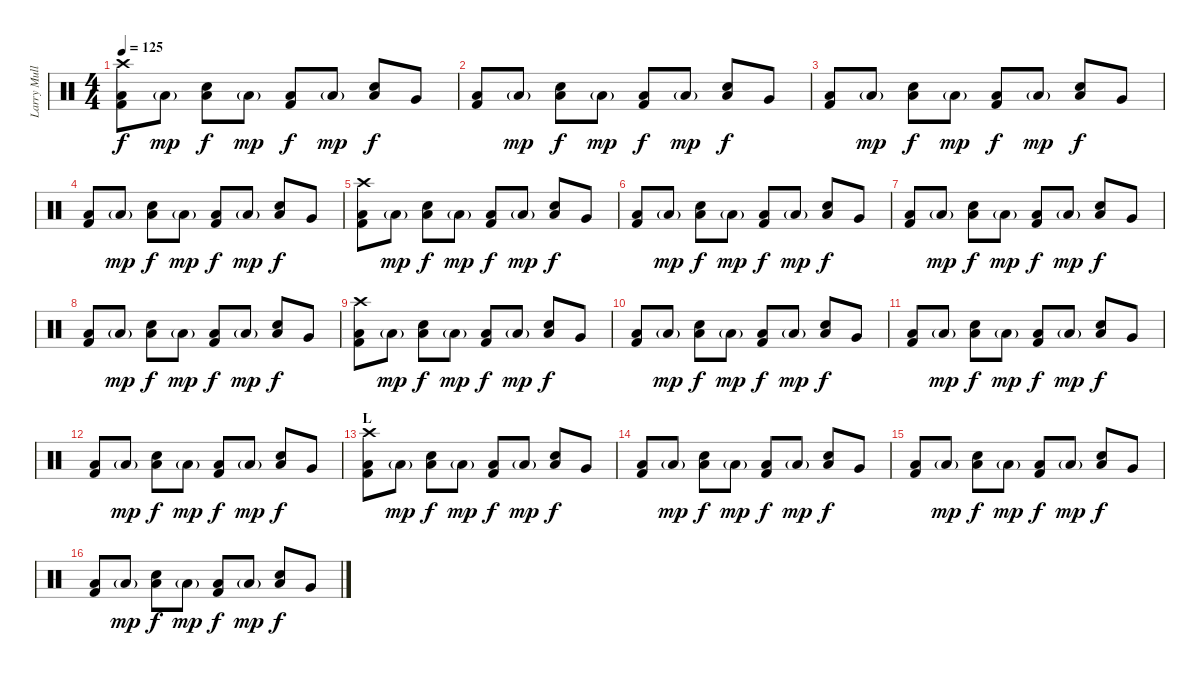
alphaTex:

\track ("Larry Mullen Jr" "Larry Mull") {instrument percussion}
\staff {score}
\articulation defaults
\ts (4 4)
\tempo 125
\clef neutral
\ks c
("Crash high (hit)" "Kick (hit) 2" "Low Floor Tom (hit)").8{dy f} "Low Floor Tom (hit)"{g}.8{dy mp} ("Snare (hit) 2" "Low Floor Tom (hit)").8{dy f} "Low Floor Tom (hit)"{g}.8{dy mp} ("Kick (hit) 2" "Low Floor Tom (hit)").8{dy f} "Low Floor Tom (hit)"{g}.8{dy mp} ("Snare (hit) 2" "Low Floor Tom (hit)").8{dy f} "Very Low Tom (hit)".8 |
("Kick (hit) 2" "Low Floor Tom (hit)").8 "Low Floor Tom (hit)"{g}.8{dy mp} ("Snare (hit) 2" "Low Floor Tom (hit)").8{dy f} "Low Floor Tom (hit)"{g}.8{dy mp} ("Kick (hit) 2" "Low Floor Tom (hit)").8{dy f} "Low Floor Tom (hit)"{g}.8{dy mp} ("Snare (hit) 2" "Low Floor Tom (hit)").8{dy f} "Very Low Tom (hit)".8 |
("Kick (hit) 2" "Low Floor Tom (hit)").8 "Low Floor Tom (hit)"{g}.8{dy mp} ("Snare (hit) 2" "Low Floor Tom (hit)").8{dy f} "Low Floor Tom (hit)"{g}.8{dy mp} ("Kick (hit) 2" "Low Floor Tom (hit)").8{dy f} "Low Floor Tom (hit)"{g}.8{dy mp} ("Snare (hit) 2" "Low Floor Tom (hit)").8{dy f} "Very Low Tom (hit)".8 |
("Kick (hit) 2" "Low Floor Tom (hit)").8 "Low Floor Tom (hit)"{g}.8{dy mp} ("Snare (hit) 2" "Low Floor Tom (hit)").8{dy f} "Low Floor Tom (hit)"{g}.8{dy mp} ("Kick (hit) 2" "Low Floor Tom (hit)").8{dy f} "Low Floor Tom (hit)"{g}.8{dy mp} ("Snare (hit) 2" "Low Floor Tom (hit)").8{dy f} "Very Low Tom (hit)".8 |
("Crash high (hit)" "Kick (hit) 2" "Low Floor Tom (hit)").8 "Low Floor Tom (hit)"{g}.8{dy mp} ("Snare (hit) 2" "Low Floor Tom (hit)").8{dy f} "Low Floor Tom (hit)"{g}.8{dy mp} ("Kick (hit) 2" "Low Floor Tom (hit)").8{dy f} "Low Floor Tom (hit)"{g}.8{dy mp} ("Snare (hit) 2" "Low Floor Tom (hit)").8{dy f} "Very Low Tom (hit)".8 |
("Kick (hit) 2" "Low Floor Tom (hit)").8 "Low Floor Tom (hit)"{g}.8{dy mp} ("Snare (hit) 2" "Low Floor Tom (hit)").8{dy f} "Low Floor Tom (hit)"{g}.8{dy mp} ("Kick (hit) 2" "Low Floor Tom (hit)").8{dy f} "Low Floor Tom (hit)"{g}.8{dy mp} ("Snare (hit) 2" "Low Floor Tom (hit)").8{dy f} "Very Low Tom (hit)".8 |
("Kick (hit) 2" "Low Floor Tom (hit)").8 "Low Floor Tom (hit)"{g}.8{dy mp} ("Snare (hit) 2" "Low Floor Tom (hit)").8{dy f} "Low Floor Tom (hit)"{g}.8{dy mp} ("Kick (hit) 2" "Low Floor Tom (hit)").8{dy f} "Low Floor Tom (hit)"{g}.8{dy mp} ("Snare (hit) 2" "Low Floor Tom (hit)").8{dy f} "Very Low Tom (hit)".8 |
("Kick (hit) 2" "Low Floor Tom (hit)").8 "Low Floor Tom (hit)"{g}.8{dy mp} ("Snare (hit) 2" "Low Floor Tom (hit)").8{dy f} "Low Floor Tom (hit)"{g}.8{dy mp} ("Kick (hit) 2" "Low Floor Tom (hit)").8{dy f} "Low Floor Tom (hit)"{g}.8{dy mp} ("Snare (hit) 2" "Low Floor Tom (hit)").8{dy f} "Very Low Tom (hit)".8 |
("Crash high (hit)" "Kick (hit) 2" "Low Floor Tom (hit)").8 "Low Floor Tom (hit)"{g}.8{dy mp} ("Snare (hit) 2" "Low Floor Tom (hit)").8{dy f} "Low Floor Tom (hit)"{g}.8{dy mp} ("Kick (hit) 2" "Low Floor Tom (hit)").8{dy f} "Low Floor Tom (hit)"{g}.8{dy mp} ("Snare (hit) 2" "Low Floor Tom (hit)").8{dy f} "Very Low Tom (hit)".8 |
("Kick (hit) 2" "Low Floor Tom (hit)").8 "Low Floor Tom (hit)"{g}.8{dy mp} ("Snare (hit) 2" "Low Floor Tom (hit)").8{dy f} "Low Floor Tom (hit)"{g}.8{dy mp} ("Kick (hit) 2" "Low Floor Tom (hit)").8{dy f} "Low Floor Tom (hit)"{g}.8{dy mp} ("Snare (hit) 2" "Low Floor Tom (hit)").8{dy f} "Very Low Tom (hit)".8 |
("Kick (hit) 2" "Low Floor Tom (hit)").8 "Low Floor Tom (hit)"{g}.8{dy mp} ("Snare (hit) 2" "Low Floor Tom (hit)").8{dy f} "Low Floor Tom (hit)"{g}.8{dy mp} ("Kick (hit) 2" "Low Floor Tom (hit)").8{dy f} "Low Floor Tom (hit)"{g}.8{dy mp} ("Snare (hit) 2" "Low Floor Tom (hit)").8{dy f} "Very Low Tom (hit)".8 |
("Kick (hit) 2" "Low Floor Tom (hit)").8 "Low Floor Tom (hit)"{g}.8{dy mp} ("Snare (hit) 2" "Low Floor Tom (hit)").8{dy f} "Low Floor Tom (hit)"{g}.8{dy mp} ("Kick (hit) 2" "Low Floor Tom (hit)").8{dy f} "Low Floor Tom (hit)"{g}.8{dy mp} ("Snare (hit) 2" "Low Floor Tom (hit)").8{dy f} "Very Low Tom (hit)".8 |
\section ("" "L")
("Crash high (hit)" "Kick (hit) 2" "Low Floor Tom (hit)").8 "Low Floor Tom (hit)"{g}.8{dy mp} ("Snare (hit) 2" "Low Floor Tom (hit)").8{dy f} "Low Floor Tom (hit)"{g}.8{dy mp} ("Kick (hit) 2" "Low Floor Tom (hit)").8{dy f} "Low Floor Tom (hit)"{g}.8{dy mp} ("Snare (hit) 2" "Low Floor Tom (hit)").8{dy f} "Very Low Tom (hit)".8 |
("Kick (hit) 2" "Low Floor Tom (hit)").8 "Low Floor Tom (hit)"{g}.8{dy mp} ("Snare (hit) 2" "Low Floor Tom (hit)").8{dy f} "Low Floor Tom (hit)"{g}.8{dy mp} ("Kick (hit) 2" "Low Floor Tom (hit)").8{dy f} "Low Floor Tom (hit)"{g}.8{dy mp} ("Snare (hit) 2" "Low Floor Tom (hit)").8{dy f} "Very Low Tom (hit)".8 |
("Kick (hit) 2" "Low Floor Tom (hit)").8 "Low Floor Tom (hit)"{g}.8{dy mp} ("Snare (hit) 2" "Low Floor Tom (hit)").8{dy f} "Low Floor Tom (hit)"{g}.8{dy mp} ("Kick (hit) 2" "Low Floor Tom (hit)").8{dy f} "Low Floor Tom (hit)"{g}.8{dy mp} ("Snare (hit) 2" "Low Floor Tom (hit)").8{dy f} "Very Low Tom (hit)".8 |
("Kick (hit) 2" "Low Floor Tom (hit)").8 "Low Floor Tom (hit)"{g}.8{dy mp} ("Snare (hit) 2" "Low Floor Tom (hit)").8{dy f} "Low Floor Tom (hit)"{g}.8{dy mp} ("Kick (hit) 2" "Low Floor Tom (hit)").8{dy f} "Low Floor Tom (hit)"{g}.8{dy mp} ("Snare (hit) 2" "Low Floor Tom (hit)").8{dy f} "Very Low Tom (hit)".8
